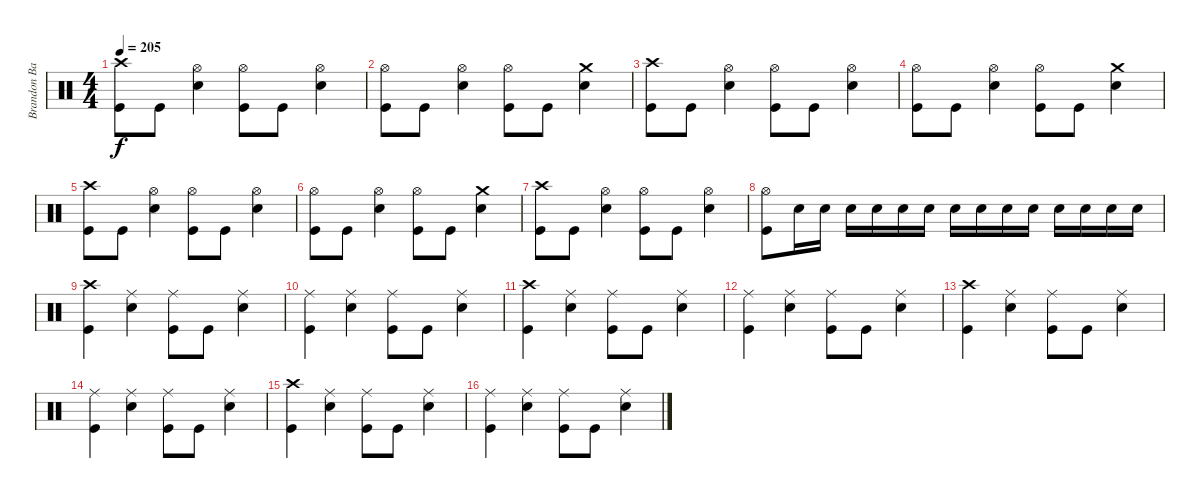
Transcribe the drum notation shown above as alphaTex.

\track ("Brandon Barnes" "Brandon Ba") {instrument percussion}
\staff {score}
\articulation defaults
\ts (4 4)
\tempo 205
\clef neutral
\ks c
("Kick (hit)" "Crash high (hit)").8{dy f} "Kick (hit)".8 ("Electric Snare (hit)" "Hi-Hat (open)").4 ("Kick (hit)" "Hi-Hat (open)").8 "Kick (hit)".8 ("Electric Snare (hit)" "Hi-Hat (open)").4 |
("Kick (hit)" "Hi-Hat (open)").8 "Kick (hit)".8 ("Electric Snare (hit)" "Hi-Hat (open)").4 ("Kick (hit)" "Hi-Hat (open)").8 "Kick (hit)".8 ("Electric Snare (hit)" "Crash medium (hit)").4 |
("Kick (hit)" "Crash high (hit)").8 "Kick (hit)".8 ("Electric Snare (hit)" "Hi-Hat (open)").4 ("Kick (hit)" "Hi-Hat (open)").8 "Kick (hit)".8 ("Electric Snare (hit)" "Hi-Hat (open)").4 |
("Kick (hit)" "Hi-Hat (open)").8 "Kick (hit)".8 ("Electric Snare (hit)" "Hi-Hat (open)").4 ("Kick (hit)" "Hi-Hat (open)").8 "Kick (hit)".8 ("Electric Snare (hit)" "Crash medium (hit)").4 |
("Kick (hit)" "Crash high (hit)").8 "Kick (hit)".8 ("Electric Snare (hit)" "Hi-Hat (open)").4 ("Kick (hit)" "Hi-Hat (open)").8 "Kick (hit)".8 ("Electric Snare (hit)" "Hi-Hat (open)").4 |
("Kick (hit)" "Hi-Hat (open)").8 "Kick (hit)".8 ("Electric Snare (hit)" "Hi-Hat (open)").4 ("Kick (hit)" "Hi-Hat (open)").8 "Kick (hit)".8 ("Electric Snare (hit)" "Crash medium (hit)").4 |
("Kick (hit)" "Crash high (hit)").8 "Kick (hit)".8 ("Electric Snare (hit)" "Hi-Hat (open)").4 ("Kick (hit)" "Hi-Hat (open)").8 "Kick (hit)".8 ("Electric Snare (hit)" "Hi-Hat (open)").4 |
("Kick (hit)" "Hi-Hat (open)").8 "Electric Snare (hit)".16 "Electric Snare (hit)".16 "Electric Snare (hit)".16 "Electric Snare (hit)".16 "Electric Snare (hit)".16 "Electric Snare (hit)".16 "Electric Snare (hit)".16 "Electric Snare (hit)".16 "Electric Snare (hit)".16 "Electric Snare (hit)".16 "Electric Snare (hit)".16 "Electric Snare (hit)".16 "Electric Snare (hit)".16 "Electric Snare (hit)".16 |
("Kick (hit)" "Crash high (hit)").4 ("Electric Snare (hit)" "Ride (middle)").4 ("Kick (hit)" "Ride (middle)").8 "Kick (hit)".8 ("Electric Snare (hit)" "Ride (middle)").4 |
("Kick (hit)" "Ride (middle)").4 ("Electric Snare (hit)" "Ride (middle)").4 ("Kick (hit)" "Ride (middle)").8 "Kick (hit)".8 ("Electric Snare (hit)" "Ride (middle)").4 |
("Kick (hit)" "Crash high (hit)").4 ("Electric Snare (hit)" "Ride (middle)").4 ("Kick (hit)" "Ride (middle)").8 "Kick (hit)".8 ("Electric Snare (hit)" "Ride (middle)").4 |
("Kick (hit)" "Ride (middle)").4 ("Electric Snare (hit)" "Ride (middle)").4 ("Kick (hit)" "Ride (middle)").8 "Kick (hit)".8 ("Electric Snare (hit)" "Ride (middle)").4 |
("Kick (hit)" "Crash high (hit)").4 ("Electric Snare (hit)" "Ride (middle)").4 ("Kick (hit)" "Ride (middle)").8 "Kick (hit)".8 ("Electric Snare (hit)" "Ride (middle)").4 |
("Kick (hit)" "Ride (middle)").4 ("Electric Snare (hit)" "Ride (middle)").4 ("Kick (hit)" "Ride (middle)").8 "Kick (hit)".8 ("Electric Snare (hit)" "Ride (middle)").4 |
("Kick (hit)" "Crash high (hit)").4 ("Electric Snare (hit)" "Ride (middle)").4 ("Kick (hit)" "Ride (middle)").8 "Kick (hit)".8 ("Electric Snare (hit)" "Ride (middle)").4 |
("Kick (hit)" "Ride (middle)").4 ("Electric Snare (hit)" "Ride (middle)").4 ("Kick (hit)" "Ride (middle)").8 "Kick (hit)".8 ("Electric Snare (hit)" "Ride (middle)").4
